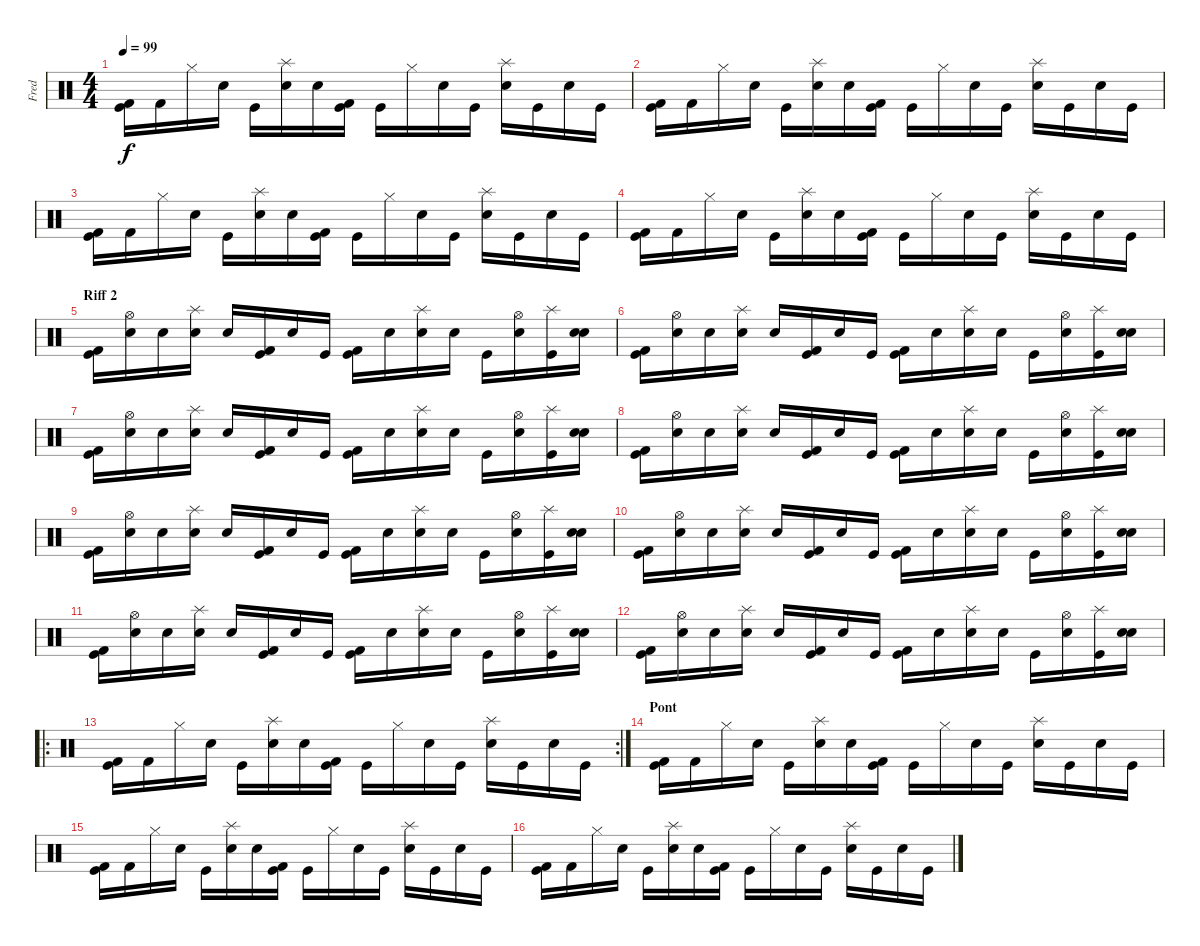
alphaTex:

\track ("Fred" "Fred") {instrument percussion}
\staff {score}
\articulation defaults
\ts (4 4)
\tempo 99
\clef neutral
\ks c
("Kick (hit) 2" "Kick (hit)").16{dy f} "Kick (hit) 2".16 "Hi-Hat (closed)".16 "Snare (hit)".16 "Kick (hit)".16 ("Snare (hit) 2" "Splash (hit)").16 "Snare (hit)".16 ("Kick (hit) 2" "Kick (hit)").16 "Kick (hit)".16 "Hi-Hat (closed)".16 "Snare (hit)".16 "Kick (hit)".16 ("Snare (hit) 2" "Splash (hit)").16 "Kick (hit)".16 "Snare (hit)".16 "Kick (hit)".16 |
("Kick (hit) 2" "Kick (hit)").16 "Kick (hit) 2".16 "Hi-Hat (closed)".16 "Snare (hit)".16 "Kick (hit)".16 ("Snare (hit) 2" "Splash (hit)").16 "Snare (hit)".16 ("Kick (hit) 2" "Kick (hit)").16 "Kick (hit)".16 "Hi-Hat (closed)".16 "Snare (hit)".16 "Kick (hit)".16 ("Snare (hit) 2" "Splash (hit)").16 "Kick (hit)".16 "Snare (hit)".16 "Kick (hit)".16 |
("Kick (hit) 2" "Kick (hit)").16 "Kick (hit) 2".16 "Hi-Hat (closed)".16 "Snare (hit)".16 "Kick (hit)".16 ("Snare (hit) 2" "Splash (hit)").16 "Snare (hit)".16 ("Kick (hit) 2" "Kick (hit)").16 "Kick (hit)".16 "Hi-Hat (closed)".16 "Snare (hit)".16 "Kick (hit)".16 ("Snare (hit) 2" "Splash (hit)").16 "Kick (hit)".16 "Snare (hit)".16 "Kick (hit)".16 |
("Kick (hit) 2" "Kick (hit)").16 "Kick (hit) 2".16 "Hi-Hat (closed)".16 "Snare (hit)".16 "Kick (hit)".16 ("Snare (hit) 2" "Splash (hit)").16 "Snare (hit)".16 ("Kick (hit) 2" "Kick (hit)").16 "Kick (hit)".16 "Hi-Hat (closed)".16 "Snare (hit)".16 "Kick (hit)".16 ("Snare (hit) 2" "Splash (hit)").16 "Kick (hit)".16 "Snare (hit)".16 "Kick (hit)".16 |
\section ("" "Riff 2")
("Kick (hit)" "Kick (hit) 2").16 ("Hi-Hat (open)" "Snare (hit)").16 "Snare (hit)".16 ("Snare (hit) 2" "Splash (hit)").16 "Snare (hit)".16 ("Kick (hit)" "Kick (hit) 2").16 "Snare (hit)".16 "Kick (hit)".16 ("Kick (hit)" "Kick (hit) 2").16 "Snare (hit)".16 ("Snare (hit) 2" "Splash (hit)").16 "Snare (hit)".16 "Kick (hit)".16 ("Hi-Hat (open)" "Snare (hit)").16 ("Kick (hit)" "Splash (hit)").16 ("Snare (hit)" "Snare (hit)").16 |
("Kick (hit)" "Kick (hit) 2").16 ("Hi-Hat (open)" "Snare (hit)").16 "Snare (hit)".16 ("Snare (hit) 2" "Splash (hit)").16 "Snare (hit)".16 ("Kick (hit)" "Kick (hit) 2").16 "Snare (hit)".16 "Kick (hit)".16 ("Kick (hit)" "Kick (hit) 2").16 "Snare (hit)".16 ("Snare (hit) 2" "Splash (hit)").16 "Snare (hit)".16 "Kick (hit)".16 ("Hi-Hat (open)" "Snare (hit)").16 ("Kick (hit)" "Splash (hit)").16 ("Snare (hit)" "Snare (hit)").16 |
("Kick (hit)" "Kick (hit) 2").16 ("Hi-Hat (open)" "Snare (hit)").16 "Snare (hit)".16 ("Snare (hit) 2" "Splash (hit)").16 "Snare (hit)".16 ("Kick (hit)" "Kick (hit) 2").16 "Snare (hit)".16 "Kick (hit)".16 ("Kick (hit)" "Kick (hit) 2").16 "Snare (hit)".16 ("Snare (hit) 2" "Splash (hit)").16 "Snare (hit)".16 "Kick (hit)".16 ("Hi-Hat (open)" "Snare (hit)").16 ("Kick (hit)" "Splash (hit)").16 ("Snare (hit)" "Snare (hit)").16 |
("Kick (hit)" "Kick (hit) 2").16 ("Hi-Hat (open)" "Snare (hit)").16 "Snare (hit)".16 ("Snare (hit) 2" "Splash (hit)").16 "Snare (hit)".16 ("Kick (hit)" "Kick (hit) 2").16 "Snare (hit)".16 "Kick (hit)".16 ("Kick (hit)" "Kick (hit) 2").16 "Snare (hit)".16 ("Snare (hit) 2" "Splash (hit)").16 "Snare (hit)".16 "Kick (hit)".16 ("Hi-Hat (open)" "Snare (hit)").16 ("Kick (hit)" "Splash (hit)").16 ("Snare (hit)" "Snare (hit)").16 |
("Kick (hit)" "Kick (hit) 2").16 ("Hi-Hat (open)" "Snare (hit)").16 "Snare (hit)".16 ("Snare (hit) 2" "Splash (hit)").16 "Snare (hit)".16 ("Kick (hit)" "Kick (hit) 2").16 "Snare (hit)".16 "Kick (hit)".16 ("Kick (hit)" "Kick (hit) 2").16 "Snare (hit)".16 ("Snare (hit) 2" "Splash (hit)").16 "Snare (hit)".16 "Kick (hit)".16 ("Hi-Hat (open)" "Snare (hit)").16 ("Kick (hit)" "Splash (hit)").16 ("Snare (hit)" "Snare (hit)").16 |
("Kick (hit)" "Kick (hit) 2").16 ("Hi-Hat (open)" "Snare (hit)").16 "Snare (hit)".16 ("Snare (hit) 2" "Splash (hit)").16 "Snare (hit)".16 ("Kick (hit)" "Kick (hit) 2").16 "Snare (hit)".16 "Kick (hit)".16 ("Kick (hit)" "Kick (hit) 2").16 "Snare (hit)".16 ("Snare (hit) 2" "Splash (hit)").16 "Snare (hit)".16 "Kick (hit)".16 ("Hi-Hat (open)" "Snare (hit)").16 ("Kick (hit)" "Splash (hit)").16 ("Snare (hit)" "Snare (hit)").16 |
("Kick (hit)" "Kick (hit) 2").16 ("Hi-Hat (open)" "Snare (hit)").16 "Snare (hit)".16 ("Snare (hit) 2" "Splash (hit)").16 "Snare (hit)".16 ("Kick (hit)" "Kick (hit) 2").16 "Snare (hit)".16 "Kick (hit)".16 ("Kick (hit)" "Kick (hit) 2").16 "Snare (hit)".16 ("Snare (hit) 2" "Splash (hit)").16 "Snare (hit)".16 "Kick (hit)".16 ("Hi-Hat (open)" "Snare (hit)").16 ("Kick (hit)" "Splash (hit)").16 ("Snare (hit)" "Snare (hit)").16 |
("Kick (hit)" "Kick (hit) 2").16 ("Hi-Hat (open)" "Snare (hit)").16 "Snare (hit)".16 ("Snare (hit) 2" "Splash (hit)").16 "Snare (hit)".16 ("Kick (hit)" "Kick (hit) 2").16 "Snare (hit)".16 "Kick (hit)".16 ("Kick (hit)" "Kick (hit) 2").16 "Snare (hit)".16 ("Snare (hit) 2" "Splash (hit)").16 "Snare (hit)".16 "Kick (hit)".16 ("Hi-Hat (open)" "Snare (hit)").16 ("Kick (hit)" "Splash (hit)").16 ("Snare (hit)" "Snare (hit)").16 |
\ro
\rc 2
\section ("" "")
("Kick (hit) 2" "Kick (hit)").16 "Kick (hit) 2".16 "Hi-Hat (closed)".16 "Snare (hit)".16 "Kick (hit)".16 ("Snare (hit) 2" "Splash (hit)").16 "Snare (hit)".16 ("Kick (hit) 2" "Kick (hit)").16 "Kick (hit)".16 "Hi-Hat (closed)".16 "Snare (hit)".16 "Kick (hit)".16 ("Snare (hit) 2" "Splash (hit)").16 "Kick (hit)".16 "Snare (hit)".16 "Kick (hit)".16 |
\section ("" "Pont")
("Kick (hit) 2" "Kick (hit)").16 "Kick (hit) 2".16 "Hi-Hat (closed)".16 "Snare (hit)".16 "Kick (hit)".16 ("Snare (hit) 2" "Splash (hit)").16 "Snare (hit)".16 ("Kick (hit) 2" "Kick (hit)").16 "Kick (hit)".16 "Hi-Hat (closed)".16 "Snare (hit)".16 "Kick (hit)".16 ("Snare (hit) 2" "Splash (hit)").16 "Kick (hit)".16 "Snare (hit)".16 "Kick (hit)".16 |
("Kick (hit) 2" "Kick (hit)").16 "Kick (hit) 2".16 "Hi-Hat (closed)".16 "Snare (hit)".16 "Kick (hit)".16 ("Snare (hit) 2" "Splash (hit)").16 "Snare (hit)".16 ("Kick (hit) 2" "Kick (hit)").16 "Kick (hit)".16 "Hi-Hat (closed)".16 "Snare (hit)".16 "Kick (hit)".16 ("Snare (hit) 2" "Splash (hit)").16 "Kick (hit)".16 "Snare (hit)".16 "Kick (hit)".16 |
("Kick (hit) 2" "Kick (hit)").16 "Kick (hit) 2".16 "Hi-Hat (closed)".16 "Snare (hit)".16 "Kick (hit)".16 ("Snare (hit) 2" "Splash (hit)").16 "Snare (hit)".16 ("Kick (hit) 2" "Kick (hit)").16 "Kick (hit)".16 "Hi-Hat (closed)".16 "Snare (hit)".16 "Kick (hit)".16 ("Snare (hit) 2" "Splash (hit)").16 "Kick (hit)".16 "Snare (hit)".16 "Kick (hit)".16
